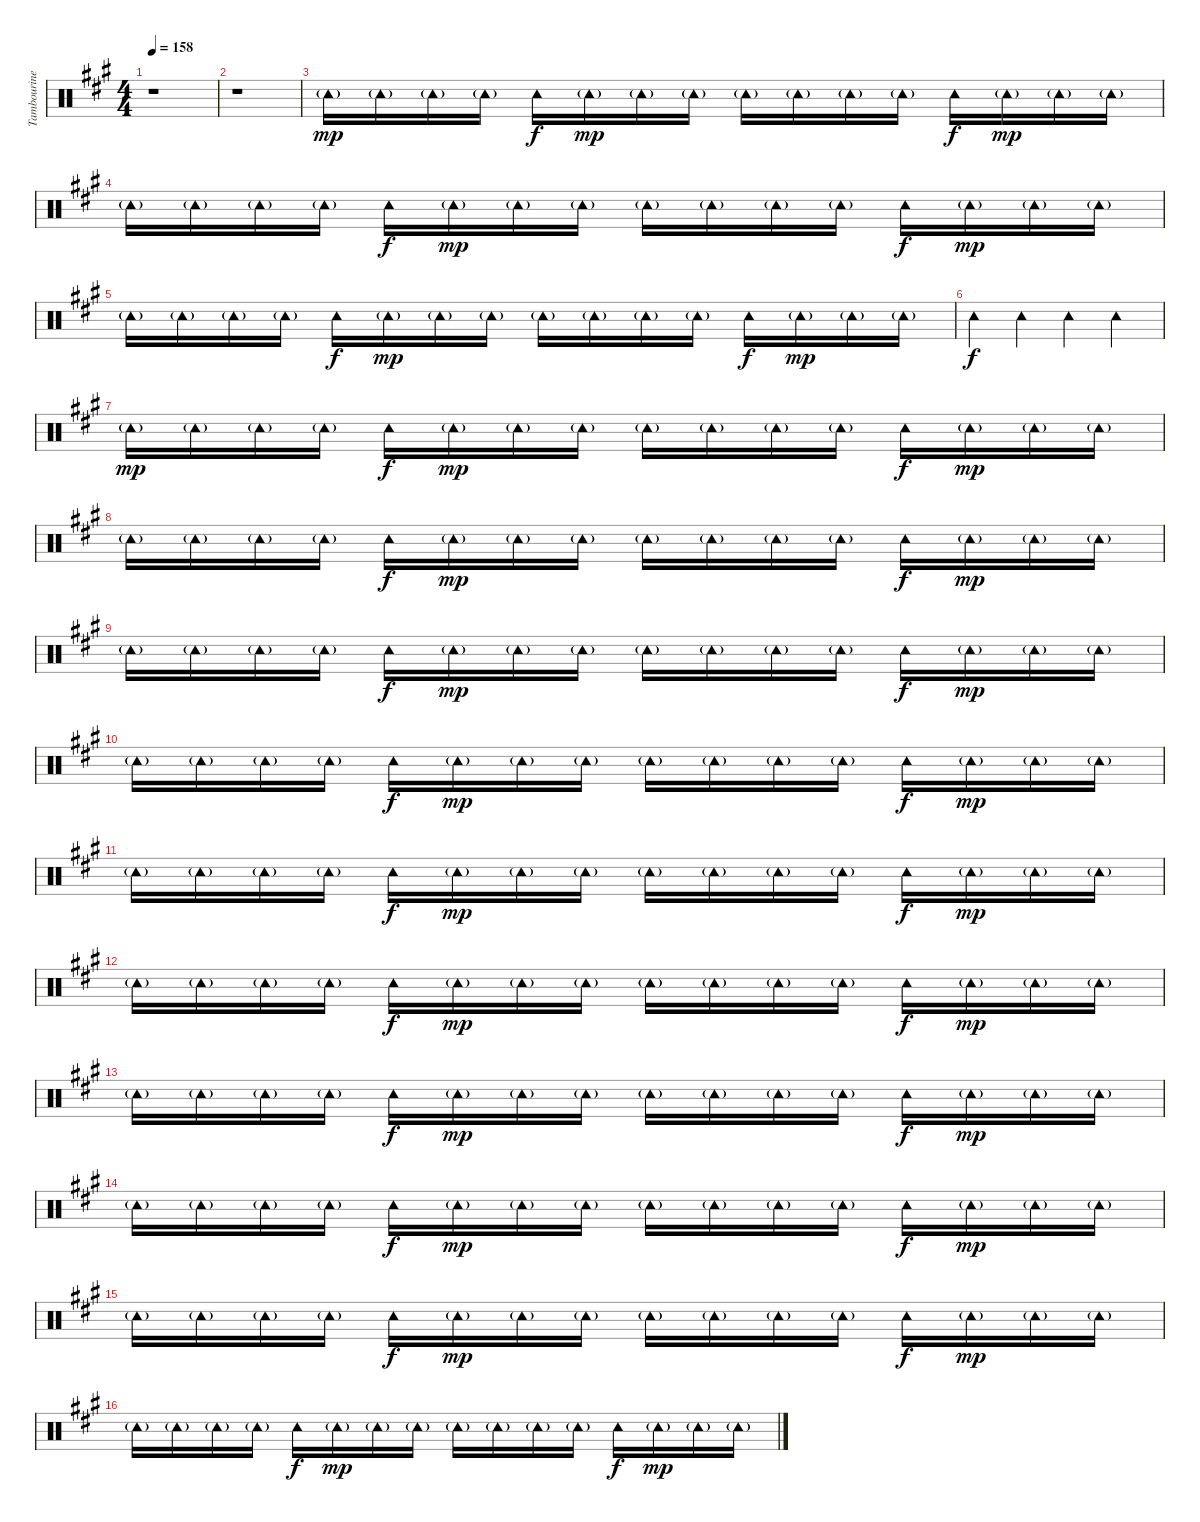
\track ("Tambourine" "Tambourine") {instrument percussion}
\staff {score}
\articulation defaults
\ts (4 4)
\tempo 158
\clef neutral
\ks a
r.1{dy f} |
r.1 |
"Tambourine (hit)"{g}.16{dy mp} "Tambourine (hit)"{g}.16 "Tambourine (hit)"{g}.16 "Tambourine (hit)"{g}.16 "Tambourine (hit)".16{dy f} "Tambourine (hit)"{g}.16{dy mp} "Tambourine (hit)"{g}.16 "Tambourine (hit)"{g}.16 "Tambourine (hit)"{g}.16 "Tambourine (hit)"{g}.16 "Tambourine (hit)"{g}.16 "Tambourine (hit)"{g}.16 "Tambourine (hit)".16{dy f} "Tambourine (hit)"{g}.16{dy mp} "Tambourine (hit)"{g}.16 "Tambourine (hit)"{g}.16 |
"Tambourine (hit)"{g}.16 "Tambourine (hit)"{g}.16 "Tambourine (hit)"{g}.16 "Tambourine (hit)"{g}.16 "Tambourine (hit)".16{dy f} "Tambourine (hit)"{g}.16{dy mp} "Tambourine (hit)"{g}.16 "Tambourine (hit)"{g}.16 "Tambourine (hit)"{g}.16 "Tambourine (hit)"{g}.16 "Tambourine (hit)"{g}.16 "Tambourine (hit)"{g}.16 "Tambourine (hit)".16{dy f} "Tambourine (hit)"{g}.16{dy mp} "Tambourine (hit)"{g}.16 "Tambourine (hit)"{g}.16 |
"Tambourine (hit)"{g}.16 "Tambourine (hit)"{g}.16 "Tambourine (hit)"{g}.16 "Tambourine (hit)"{g}.16 "Tambourine (hit)".16{dy f} "Tambourine (hit)"{g}.16{dy mp} "Tambourine (hit)"{g}.16 "Tambourine (hit)"{g}.16 "Tambourine (hit)"{g}.16 "Tambourine (hit)"{g}.16 "Tambourine (hit)"{g}.16 "Tambourine (hit)"{g}.16 "Tambourine (hit)".16{dy f} "Tambourine (hit)"{g}.16{dy mp} "Tambourine (hit)"{g}.16 "Tambourine (hit)"{g}.16 |
"Tambourine (hit)".4{dy f} "Tambourine (hit)".4 "Tambourine (hit)".4 "Tambourine (hit)".4 |
"Tambourine (hit)"{g}.16{dy mp} "Tambourine (hit)"{g}.16 "Tambourine (hit)"{g}.16 "Tambourine (hit)"{g}.16 "Tambourine (hit)".16{dy f} "Tambourine (hit)"{g}.16{dy mp} "Tambourine (hit)"{g}.16 "Tambourine (hit)"{g}.16 "Tambourine (hit)"{g}.16 "Tambourine (hit)"{g}.16 "Tambourine (hit)"{g}.16 "Tambourine (hit)"{g}.16 "Tambourine (hit)".16{dy f} "Tambourine (hit)"{g}.16{dy mp} "Tambourine (hit)"{g}.16 "Tambourine (hit)"{g}.16 |
"Tambourine (hit)"{g}.16 "Tambourine (hit)"{g}.16 "Tambourine (hit)"{g}.16 "Tambourine (hit)"{g}.16 "Tambourine (hit)".16{dy f} "Tambourine (hit)"{g}.16{dy mp} "Tambourine (hit)"{g}.16 "Tambourine (hit)"{g}.16 "Tambourine (hit)"{g}.16 "Tambourine (hit)"{g}.16 "Tambourine (hit)"{g}.16 "Tambourine (hit)"{g}.16 "Tambourine (hit)".16{dy f} "Tambourine (hit)"{g}.16{dy mp} "Tambourine (hit)"{g}.16 "Tambourine (hit)"{g}.16 |
"Tambourine (hit)"{g}.16 "Tambourine (hit)"{g}.16 "Tambourine (hit)"{g}.16 "Tambourine (hit)"{g}.16 "Tambourine (hit)".16{dy f} "Tambourine (hit)"{g}.16{dy mp} "Tambourine (hit)"{g}.16 "Tambourine (hit)"{g}.16 "Tambourine (hit)"{g}.16 "Tambourine (hit)"{g}.16 "Tambourine (hit)"{g}.16 "Tambourine (hit)"{g}.16 "Tambourine (hit)".16{dy f} "Tambourine (hit)"{g}.16{dy mp} "Tambourine (hit)"{g}.16 "Tambourine (hit)"{g}.16 |
"Tambourine (hit)"{g}.16 "Tambourine (hit)"{g}.16 "Tambourine (hit)"{g}.16 "Tambourine (hit)"{g}.16 "Tambourine (hit)".16{dy f} "Tambourine (hit)"{g}.16{dy mp} "Tambourine (hit)"{g}.16 "Tambourine (hit)"{g}.16 "Tambourine (hit)"{g}.16 "Tambourine (hit)"{g}.16 "Tambourine (hit)"{g}.16 "Tambourine (hit)"{g}.16 "Tambourine (hit)".16{dy f} "Tambourine (hit)"{g}.16{dy mp} "Tambourine (hit)"{g}.16 "Tambourine (hit)"{g}.16 |
"Tambourine (hit)"{g}.16 "Tambourine (hit)"{g}.16 "Tambourine (hit)"{g}.16 "Tambourine (hit)"{g}.16 "Tambourine (hit)".16{dy f} "Tambourine (hit)"{g}.16{dy mp} "Tambourine (hit)"{g}.16 "Tambourine (hit)"{g}.16 "Tambourine (hit)"{g}.16 "Tambourine (hit)"{g}.16 "Tambourine (hit)"{g}.16 "Tambourine (hit)"{g}.16 "Tambourine (hit)".16{dy f} "Tambourine (hit)"{g}.16{dy mp} "Tambourine (hit)"{g}.16 "Tambourine (hit)"{g}.16 |
"Tambourine (hit)"{g}.16 "Tambourine (hit)"{g}.16 "Tambourine (hit)"{g}.16 "Tambourine (hit)"{g}.16 "Tambourine (hit)".16{dy f} "Tambourine (hit)"{g}.16{dy mp} "Tambourine (hit)"{g}.16 "Tambourine (hit)"{g}.16 "Tambourine (hit)"{g}.16 "Tambourine (hit)"{g}.16 "Tambourine (hit)"{g}.16 "Tambourine (hit)"{g}.16 "Tambourine (hit)".16{dy f} "Tambourine (hit)"{g}.16{dy mp} "Tambourine (hit)"{g}.16 "Tambourine (hit)"{g}.16 |
"Tambourine (hit)"{g}.16 "Tambourine (hit)"{g}.16 "Tambourine (hit)"{g}.16 "Tambourine (hit)"{g}.16 "Tambourine (hit)".16{dy f} "Tambourine (hit)"{g}.16{dy mp} "Tambourine (hit)"{g}.16 "Tambourine (hit)"{g}.16 "Tambourine (hit)"{g}.16 "Tambourine (hit)"{g}.16 "Tambourine (hit)"{g}.16 "Tambourine (hit)"{g}.16 "Tambourine (hit)".16{dy f} "Tambourine (hit)"{g}.16{dy mp} "Tambourine (hit)"{g}.16 "Tambourine (hit)"{g}.16 |
"Tambourine (hit)"{g}.16 "Tambourine (hit)"{g}.16 "Tambourine (hit)"{g}.16 "Tambourine (hit)"{g}.16 "Tambourine (hit)".16{dy f} "Tambourine (hit)"{g}.16{dy mp} "Tambourine (hit)"{g}.16 "Tambourine (hit)"{g}.16 "Tambourine (hit)"{g}.16 "Tambourine (hit)"{g}.16 "Tambourine (hit)"{g}.16 "Tambourine (hit)"{g}.16 "Tambourine (hit)".16{dy f} "Tambourine (hit)"{g}.16{dy mp} "Tambourine (hit)"{g}.16 "Tambourine (hit)"{g}.16 |
"Tambourine (hit)"{g}.16 "Tambourine (hit)"{g}.16 "Tambourine (hit)"{g}.16 "Tambourine (hit)"{g}.16 "Tambourine (hit)".16{dy f} "Tambourine (hit)"{g}.16{dy mp} "Tambourine (hit)"{g}.16 "Tambourine (hit)"{g}.16 "Tambourine (hit)"{g}.16 "Tambourine (hit)"{g}.16 "Tambourine (hit)"{g}.16 "Tambourine (hit)"{g}.16 "Tambourine (hit)".16{dy f} "Tambourine (hit)"{g}.16{dy mp} "Tambourine (hit)"{g}.16 "Tambourine (hit)"{g}.16 |
"Tambourine (hit)"{g}.16 "Tambourine (hit)"{g}.16 "Tambourine (hit)"{g}.16 "Tambourine (hit)"{g}.16 "Tambourine (hit)".16{dy f} "Tambourine (hit)"{g}.16{dy mp} "Tambourine (hit)"{g}.16 "Tambourine (hit)"{g}.16 "Tambourine (hit)"{g}.16 "Tambourine (hit)"{g}.16 "Tambourine (hit)"{g}.16 "Tambourine (hit)"{g}.16 "Tambourine (hit)".16{dy f} "Tambourine (hit)"{g}.16{dy mp} "Tambourine (hit)"{g}.16 "Tambourine (hit)"{g}.16
